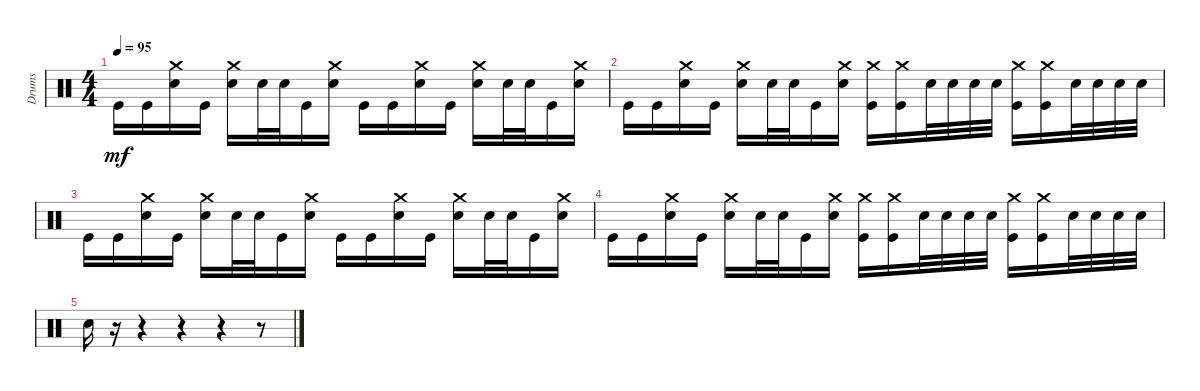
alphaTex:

\track ("Drums" "Drums") {instrument percussion}
\staff {score}
\articulation defaults
\ts (4 4)
\tempo 95
\clef neutral
\ks c "Kick (hit)".16{dy mf} "Kick (hit)".16
("Crash medium (hit)" "Snare (hit) 2").16 "Kick (hit)".16 ("Crash medium (hit)" "Snare (hit) 2").16 "Snare (hit) 2".32 "Snare (hit) 2".32 "Kick (hit)".16 ("Crash medium (hit)" "Snare (hit) 2").16 "Kick (hit)".16 "Kick (hit)".16 ("Crash medium (hit)" "Snare (hit) 2").16 "Kick (hit)".16 ("Crash medium (hit)" "Snare (hit) 2").16 "Snare (hit) 2".32 "Snare (hit) 2".32 "Kick (hit)".16 ("Crash medium (hit)" "Snare (hit) 2").16 |
"Kick (hit)".16 "Kick (hit)".16 ("Crash medium (hit)" "Snare (hit) 2").16 "Kick (hit)".16 ("Crash medium (hit)" "Snare (hit) 2").16 "Snare (hit) 2".32 "Snare (hit) 2".32 "Kick (hit)".16 ("Crash medium (hit)" "Snare (hit) 2").16 ("Crash medium (hit)" "Kick (hit)").16 ("Crash medium (hit)" "Kick (hit)").16 "Snare (hit) 2".32 "Snare (hit) 2".32 "Snare (hit) 2".32 "Snare (hit) 2".32 ("Crash medium (hit)" "Kick (hit)").16 ("Crash medium (hit)" "Kick (hit)").16 "Snare (hit) 2".32 "Snare (hit) 2".32 "Snare (hit) 2".32 "Snare (hit) 2".32 |
"Kick (hit)".16 "Kick (hit)".16 ("Crash medium (hit)" "Snare (hit) 2").16 "Kick (hit)".16 ("Crash medium (hit)" "Snare (hit) 2").16 "Snare (hit) 2".32 "Snare (hit) 2".32 "Kick (hit)".16 ("Crash medium (hit)" "Snare (hit) 2").16 "Kick (hit)".16 "Kick (hit)".16 ("Crash medium (hit)" "Snare (hit) 2").16 "Kick (hit)".16 ("Crash medium (hit)" "Snare (hit) 2").16 "Snare (hit) 2".32 "Snare (hit) 2".32 "Kick (hit)".16 ("Crash medium (hit)" "Snare (hit) 2").16 |
"Kick (hit)".16 "Kick (hit)".16 ("Crash medium (hit)" "Snare (hit) 2").16 "Kick (hit)".16 ("Crash medium (hit)" "Snare (hit) 2").16 "Snare (hit) 2".32 "Snare (hit) 2".32 "Kick (hit)".16 ("Crash medium (hit)" "Snare (hit) 2").16 ("Crash medium (hit)" "Kick (hit)").16 ("Crash medium (hit)" "Kick (hit)").16 "Snare (hit) 2".32 "Snare (hit) 2".32 "Snare (hit) 2".32 "Snare (hit) 2".32 ("Crash medium (hit)" "Kick (hit)").16 ("Crash medium (hit)" "Kick (hit)").16 "Snare (hit) 2".32 "Snare (hit) 2".32 "Snare (hit) 2".32 "Snare (hit) 2".32 |
"Snare (hit) 2".16 r.16 r.4 r.4 r.4 r.8
